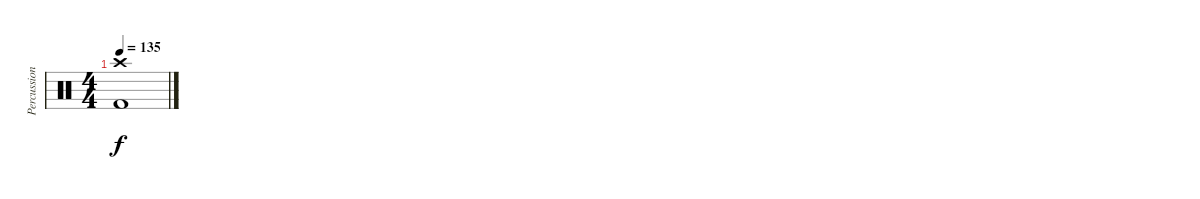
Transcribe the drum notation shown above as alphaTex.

\track ("Percussion" "Percussion") {instrument percussion}
\staff {score}
\articulation defaults
\ts (4 4)
\tempo 135
\clef neutral
\ks c
("Crash high (hit)" "Kick (hit) 2").1{dy f}
